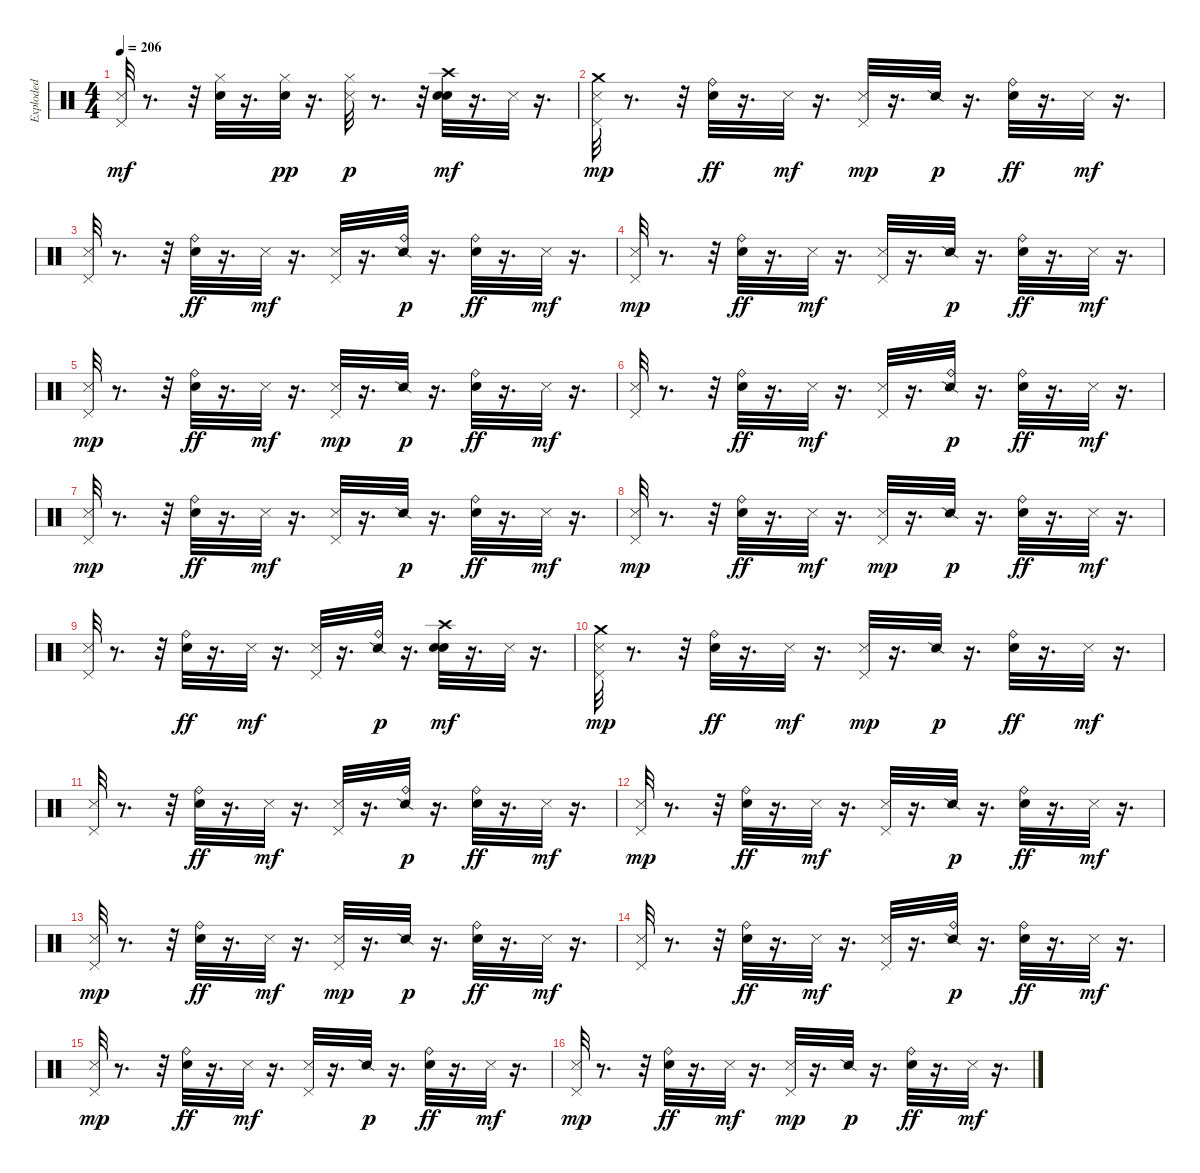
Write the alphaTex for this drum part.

\track ("Exploded" "Exploded") {instrument percussion}
\staff {score}
\articulation defaults
\ts (4 4)
\tempo 206
\clef neutral
\ks c
("Metronome (hit)" "Pedal Hi-Hat (hit)").32{dy mf} r.8{d} r.32 ("Electric Snare (hit)" "Hi-Hat (closed)").32 r.16{d} ("Electric Snare (hit)" "Hi-Hat (closed)").32{dy pp} r.16{d} ("Metronome (hit)" "Hi-Hat (closed)").32{dy p} r.8{d} r.32 ("Metronome (bell)" "Electric Snare (hit)" "Crash high (hit)").32{dy mf} r.16{d} "Metronome (hit)".32 r.16{d} |
("Crash medium (hit)" "Metronome (hit)" "Pedal Hi-Hat (hit)").32{dy mp} r.8{d} r.32 ("Electric Snare (hit)" "Ride (bell)").32{dy ff} r.16{d} "Metronome (hit)".32{dy mf} r.16{d} ("Metronome (hit)" "Pedal Hi-Hat (hit)").32{dy mp} r.16{d} "Snare (side stick) 2".32{dy p} r.16{d} ("Electric Snare (hit)" "Ride (bell)").32{dy ff} r.16{d} "Metronome (hit)".32{dy mf} r.16{d} |
("Metronome (hit)" "Pedal Hi-Hat (hit)").32 r.8{d} r.32 ("Electric Snare (hit)" "Ride (bell)").32{dy ff} r.16{d} "Metronome (hit)".32{dy mf} r.16{d} ("Metronome (hit)" "Pedal Hi-Hat (hit)").32 r.16{d} ("Snare (side stick) 2" "Ride (bell)").32{dy p} r.16{d} ("Electric Snare (hit)" "Ride (bell)").32{dy ff} r.16{d} "Metronome (hit)".32{dy mf} r.16{d} |
("Metronome (hit)" "Pedal Hi-Hat (hit)").32{dy mp} r.8{d} r.32 ("Electric Snare (hit)" "Ride (bell)").32{dy ff} r.16{d} "Metronome (hit)".32{dy mf} r.16{d} ("Metronome (hit)" "Pedal Hi-Hat (hit)").32 r.16{d} "Snare (side stick) 2".32{dy p} r.16{d} ("Electric Snare (hit)" "Ride (bell)").32{dy ff} r.16{d} "Metronome (hit)".32{dy mf} r.16{d} |
("Metronome (hit)" "Pedal Hi-Hat (hit)").32{dy mp} r.8{d} r.32 ("Electric Snare (hit)" "Ride (bell)").32{dy ff} r.16{d} "Metronome (hit)".32{dy mf} r.16{d} ("Metronome (hit)" "Pedal Hi-Hat (hit)").32{dy mp} r.16{d} "Snare (side stick) 2".32{dy p} r.16{d} ("Electric Snare (hit)" "Ride (bell)").32{dy ff} r.16{d} "Metronome (hit)".32{dy mf} r.16{d} |
("Metronome (hit)" "Pedal Hi-Hat (hit)").32 r.8{d} r.32 ("Electric Snare (hit)" "Ride (bell)").32{dy ff} r.16{d} "Metronome (hit)".32{dy mf} r.16{d} ("Metronome (hit)" "Pedal Hi-Hat (hit)").32 r.16{d} ("Snare (side stick) 2" "Ride (bell)").32{dy p} r.16{d} ("Electric Snare (hit)" "Ride (bell)").32{dy ff} r.16{d} "Metronome (hit)".32{dy mf} r.16{d} |
("Metronome (hit)" "Pedal Hi-Hat (hit)").32{dy mp} r.8{d} r.32 ("Electric Snare (hit)" "Ride (bell)").32{dy ff} r.16{d} "Metronome (hit)".32{dy mf} r.16{d} ("Metronome (hit)" "Pedal Hi-Hat (hit)").32 r.16{d} "Snare (side stick) 2".32{dy p} r.16{d} ("Electric Snare (hit)" "Ride (bell)").32{dy ff} r.16{d} "Metronome (hit)".32{dy mf} r.16{d} |
("Metronome (hit)" "Pedal Hi-Hat (hit)").32{dy mp} r.8{d} r.32 ("Electric Snare (hit)" "Ride (bell)").32{dy ff} r.16{d} "Metronome (hit)".32{dy mf} r.16{d} ("Metronome (hit)" "Pedal Hi-Hat (hit)").32{dy mp} r.16{d} "Snare (side stick) 2".32{dy p} r.16{d} ("Electric Snare (hit)" "Ride (bell)").32{dy ff} r.16{d} "Metronome (hit)".32{dy mf} r.16{d} |
("Metronome (hit)" "Pedal Hi-Hat (hit)").32 r.8{d} r.32 ("Electric Snare (hit)" "Ride (bell)").32{dy ff} r.16{d} "Metronome (hit)".32{dy mf} r.16{d} ("Metronome (hit)" "Pedal Hi-Hat (hit)").32 r.16{d} ("Snare (side stick) 2" "Ride (bell)").32{dy p} r.16{d} ("Metronome (bell)" "Electric Snare (hit)" "Crash high (hit)").32{dy mf} r.16{d} "Metronome (hit)".32 r.16{d} |
("Crash medium (hit)" "Metronome (hit)" "Pedal Hi-Hat (hit)").32{dy mp} r.8{d} r.32 ("Electric Snare (hit)" "Ride (bell)").32{dy ff} r.16{d} "Metronome (hit)".32{dy mf} r.16{d} ("Metronome (hit)" "Pedal Hi-Hat (hit)").32{dy mp} r.16{d} "Snare (side stick) 2".32{dy p} r.16{d} ("Electric Snare (hit)" "Ride (bell)").32{dy ff} r.16{d} "Metronome (hit)".32{dy mf} r.16{d} |
("Metronome (hit)" "Pedal Hi-Hat (hit)").32 r.8{d} r.32 ("Electric Snare (hit)" "Ride (bell)").32{dy ff} r.16{d} "Metronome (hit)".32{dy mf} r.16{d} ("Metronome (hit)" "Pedal Hi-Hat (hit)").32 r.16{d} ("Snare (side stick) 2" "Ride (bell)").32{dy p} r.16{d} ("Electric Snare (hit)" "Ride (bell)").32{dy ff} r.16{d} "Metronome (hit)".32{dy mf} r.16{d} |
("Metronome (hit)" "Pedal Hi-Hat (hit)").32{dy mp} r.8{d} r.32 ("Electric Snare (hit)" "Ride (bell)").32{dy ff} r.16{d} "Metronome (hit)".32{dy mf} r.16{d} ("Metronome (hit)" "Pedal Hi-Hat (hit)").32 r.16{d} "Snare (side stick) 2".32{dy p} r.16{d} ("Electric Snare (hit)" "Ride (bell)").32{dy ff} r.16{d} "Metronome (hit)".32{dy mf} r.16{d} |
("Metronome (hit)" "Pedal Hi-Hat (hit)").32{dy mp} r.8{d} r.32 ("Electric Snare (hit)" "Ride (bell)").32{dy ff} r.16{d} "Metronome (hit)".32{dy mf} r.16{d} ("Metronome (hit)" "Pedal Hi-Hat (hit)").32{dy mp} r.16{d} "Snare (side stick) 2".32{dy p} r.16{d} ("Electric Snare (hit)" "Ride (bell)").32{dy ff} r.16{d} "Metronome (hit)".32{dy mf} r.16{d} |
("Metronome (hit)" "Pedal Hi-Hat (hit)").32 r.8{d} r.32 ("Electric Snare (hit)" "Ride (bell)").32{dy ff} r.16{d} "Metronome (hit)".32{dy mf} r.16{d} ("Metronome (hit)" "Pedal Hi-Hat (hit)").32 r.16{d} ("Snare (side stick) 2" "Ride (bell)").32{dy p} r.16{d} ("Electric Snare (hit)" "Ride (bell)").32{dy ff} r.16{d} "Metronome (hit)".32{dy mf} r.16{d} |
("Metronome (hit)" "Pedal Hi-Hat (hit)").32{dy mp} r.8{d} r.32 ("Electric Snare (hit)" "Ride (bell)").32{dy ff} r.16{d} "Metronome (hit)".32{dy mf} r.16{d} ("Metronome (hit)" "Pedal Hi-Hat (hit)").32 r.16{d} "Snare (side stick) 2".32{dy p} r.16{d} ("Electric Snare (hit)" "Ride (bell)").32{dy ff} r.16{d} "Metronome (hit)".32{dy mf} r.16{d} |
("Metronome (hit)" "Pedal Hi-Hat (hit)").32{dy mp} r.8{d} r.32 ("Electric Snare (hit)" "Ride (bell)").32{dy ff} r.16{d} "Metronome (hit)".32{dy mf} r.16{d} ("Metronome (hit)" "Pedal Hi-Hat (hit)").32{dy mp} r.16{d} "Snare (side stick) 2".32{dy p} r.16{d} ("Electric Snare (hit)" "Ride (bell)").32{dy ff} r.16{d} "Metronome (hit)".32{dy mf} r.16{d}
